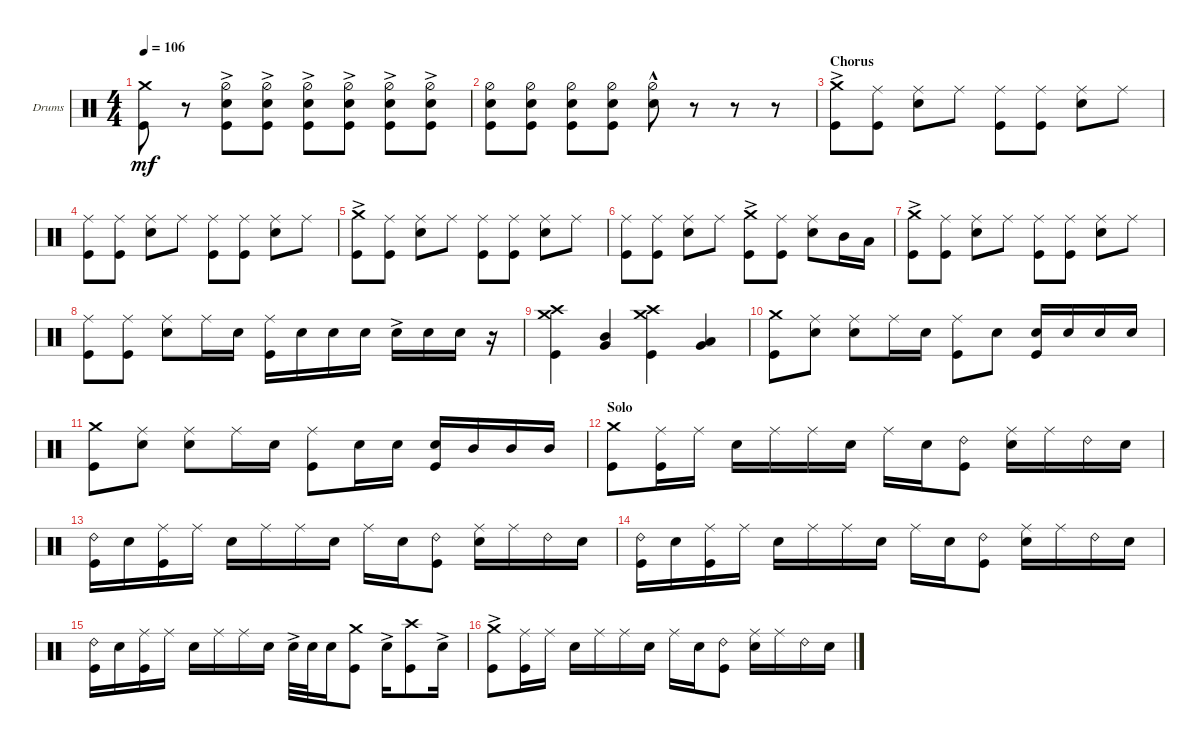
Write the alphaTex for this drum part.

\defaultSystemsLayout 4
\bracketExtendMode groupsimilarinstruments
\firstSystemTrackNameOrientation horizontal
\otherSystemsTrackNameOrientation horizontal
\track ("Drumkit" "Drums") {mute instrument percussion}
\staff {score}
\articulation defaults
\ts (4 4)
\tempo 106
\clef neutral
\scale
0.333333
\ks c
("Kick (hit)" "Crash medium (hit)").8{dy mf} r.8 ("Kick (hit)" "Snare (hit) 2"{ac} "Hi-Hat (half)").8 ("Kick (hit)" "Snare (hit) 2"{ac} "Hi-Hat (half)").8 ("Kick (hit)" "Snare (hit) 2"{ac} "Hi-Hat (half)").8 ("Kick (hit)" "Snare (hit) 2"{ac} "Hi-Hat (half)").8 ("Kick (hit)" "Snare (hit) 2"{ac} "Hi-Hat (half)").8 ("Kick (hit)" "Snare (hit) 2"{ac} "Hi-Hat (half)").8 |
\scale
0.333333 ("Kick (hit)" "Snare (hit) 2" "Hi-Hat (half)").8 ("Kick (hit)" "Snare (hit) 2" "Hi-Hat (half)").8 ("Kick (hit)" "Snare (hit) 2" "Hi-Hat (half)").8 ("Kick (hit)" "Snare (hit) 2" "Hi-Hat (half)").8 ("Snare (hit) 2"{hac} "Hi-Hat (half)"{hac}).8 r.8 r.8 r.8 |
\section ("" "Chorus")
\scale
0.333333 ("Kick (hit)" "Crash medium (hit)"{ac}).8 ("Kick (hit)" "Ride (middle)").8 ("Snare (hit) 2" "Ride (middle)").8 "Ride (middle)".8 ("Kick (hit)" "Ride (middle)").8 ("Kick (hit)" "Ride (middle)").8 ("Snare (hit) 2" "Ride (middle)").8 "Ride (middle)".8 |
\scale
0.333333 ("Kick (hit)" "Ride (middle)").8 ("Kick (hit)" "Ride (middle)").8 ("Snare (hit) 2" "Ride (middle)").8 "Ride (middle)".8 ("Kick (hit)" "Ride (middle)").8 ("Kick (hit)" "Ride (middle)").8 ("Snare (hit) 2" "Ride (middle)").8 "Ride (middle)".8 |
\scale
0.333333 ("Kick (hit)" "Crash medium (hit)"{ac}).8 ("Kick (hit)" "Ride (middle)").8 ("Snare (hit) 2" "Ride (middle)").8 "Ride (middle)".8 ("Kick (hit)" "Ride (middle)").8 ("Kick (hit)" "Ride (middle)").8 ("Snare (hit) 2" "Ride (middle)").8 "Ride (middle)".8 |
\scale
0.333333 ("Kick (hit)" "Ride (middle)").8 ("Kick (hit)" "Ride (middle)").8 ("Snare (hit) 2" "Ride (middle)").8 "Ride (middle)".8 ("Kick (hit)" "Crash medium (hit)"{ac}).8 ("Kick (hit)" "Ride (middle)").8 ("Snare (hit) 2" "Ride (middle)").8 "Mid Tom (hit)".16 "Low Tom (hit)".16 |
\scale
0.333333 ("Kick (hit)" "Crash medium (hit)"{ac}).8 ("Kick (hit)" "Ride (middle)").8 ("Snare (hit) 2" "Ride (middle)").8 "Ride (middle)".8 ("Kick (hit)" "Ride (middle)").8 ("Kick (hit)" "Ride (middle)").8 ("Snare (hit) 2" "Ride (middle)").8 "Ride (middle)".8 |
\scale
0.333333 ("Kick (hit)" "Ride (middle)").8 ("Kick (hit)" "Ride (middle)").8 ("Snare (hit) 2" "Ride (middle)").8 "Ride (middle)".16 "Snare (hit) 2".16 ("Kick (hit)" "Ride (middle)").16 "Snare (hit) 2".16 "Snare (hit) 2".16 "Snare (hit) 2".16 "Snare (hit) 2"{ac}.16 "Snare (hit) 2".16 "Snare (hit) 2".16 r.16 |
\scale
0.333333 ("Kick (hit)" "Crash medium (hit)" "Crash high (hit)").4 ("Very Low Tom (hit)" "Mid Tom (hit)").4 ("Kick (hit)" "Crash medium (hit)" "Crash high (hit)").4 ("Very Low Tom (hit)" "Low Tom (hit)").4 |
\scale
0.333333 ("Kick (hit)" "Crash medium (hit)").8 ("Snare (hit) 2" "Ride (middle)").8 ("Ride (middle)" "Snare (hit) 2").8 "Ride (middle)".16 "Snare (hit) 2".16 ("Kick (hit)" "Ride (middle)").8 "Snare (hit) 2".8 ("Kick (hit)" "Snare (hit) 2").16 "Snare (hit) 2".16 "Snare (hit) 2".16 "Snare (hit) 2".16 |
\scale
0.333333 ("Kick (hit)" "Crash medium (hit)").8 ("Snare (hit) 2" "Ride (middle)").8 ("Ride (middle)" "Snare (hit) 2").8 "Ride (middle)".16 "Snare (hit) 2".16 ("Kick (hit)" "Ride (middle)").8 "Snare (hit) 2".16 "Snare (hit) 2".16 ("Snare (hit) 2" "Kick (hit)").16 "Mid Tom (hit)".16 "Mid Tom (hit)".16 "Mid Tom (hit)".16 |
\section ("" "Solo")
\scale
0.333333 ("Kick (hit)" "Crash medium (hit)").8 ("Kick (hit)" "Ride (middle)").16 "Ride (middle)".16 "Snare (hit) 2".16 "Ride (middle)".16 "Ride (middle)".16 "Snare (hit) 2".16 "Ride (middle)".16 "Snare (hit) 2".16 ("Kick (hit)" "Ride (bell) 2").8 ("Snare (hit) 2" "Ride (middle)").16 "Ride (middle)".16 "Ride (bell) 2".16 "Snare (hit) 2".16 |
\scale
0.333333 ("Kick (hit)" "Ride (bell) 2").16 "Snare (hit) 2".16 ("Kick (hit)" "Ride (middle)").16 "Ride (middle)".16 "Snare (hit) 2".16 "Ride (middle)".16 "Ride (middle)".16 "Snare (hit) 2".16 "Ride (middle)".16 "Snare (hit) 2".16 ("Kick (hit)" "Ride (bell) 2").8 ("Snare (hit) 2" "Ride (middle)").16 "Ride (middle)".16 "Ride (bell) 2".16 "Snare (hit) 2".16 |
\scale
0.333333 ("Kick (hit)" "Ride (bell) 2").16 "Snare (hit) 2".16 ("Kick (hit)" "Ride (middle)").16 "Ride (middle)".16 "Snare (hit) 2".16 "Ride (middle)".16 "Ride (middle)".16 "Snare (hit) 2".16 "Ride (middle)".16 "Snare (hit) 2".16 ("Kick (hit)" "Ride (bell) 2").8 ("Snare (hit) 2" "Ride (middle)").16 "Ride (middle)".16 "Ride (bell) 2".16 "Snare (hit) 2".16 |
\scale
0.333333 ("Kick (hit)" "Ride (bell) 2").16 "Snare (hit) 2".16 ("Kick (hit)" "Ride (middle)").16 "Ride (middle)".16 "Snare (hit) 2".16 "Ride (middle)".16 "Ride (middle)".16 "Snare (hit) 2".16 "Snare (hit) 2"{ac}.32 "Snare (hit) 2".32 "Snare (hit) 2".16 ("Kick (hit)" "Crash medium (hit)").8 "Snare (hit) 2"{ac}.16 ("Kick (hit)" "Crash high (hit)").8 "Snare (hit) 2"{ac}.16 |
\scale
0.333333 ("Kick (hit)" "Crash medium (hit)"{ac}).8 ("Kick (hit)" "Ride (middle)").16 "Ride (middle)".16 "Snare (hit) 2".16 "Ride (middle)".16 "Ride (middle)".16 "Snare (hit) 2".16 "Ride (middle)".16 "Snare (hit) 2".16 ("Kick (hit)" "Ride (bell) 2").8 ("Snare (hit) 2" "Ride (middle)").16 "Ride (middle)".16 "Ride (bell) 2".16 "Snare (hit) 2".16
